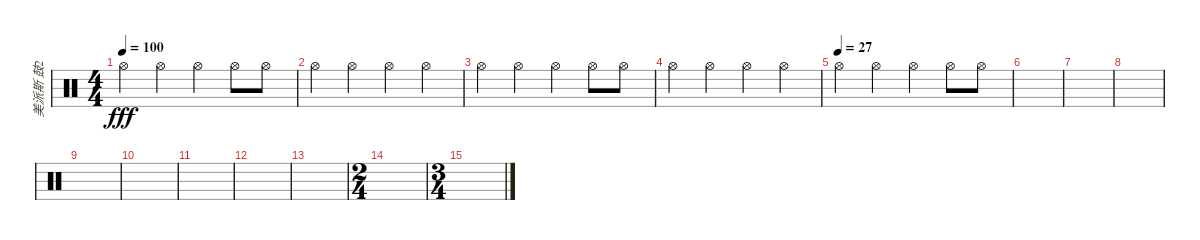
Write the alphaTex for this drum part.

\track ("美派斯 鼓2" "美派斯 鼓2") {instrument percussion}
\staff {score}
\articulation defaults
\ts (4 4)
\tempo 100
\clef neutral
\ks c "Hi-Hat (open)".4{dy fff} "Hi-Hat (open)".4 "Hi-Hat (open)".4 "Hi-Hat (open)".8 "Hi-Hat (open)".8
|
"Hi-Hat (open)".4 "Hi-Hat (open)".4 "Hi-Hat (open)".4 "Hi-Hat (open)".4 |
"Hi-Hat (open)".4 "Hi-Hat (open)".4 "Hi-Hat (open)".4 "Hi-Hat (open)".8 "Hi-Hat (open)".8 |
"Hi-Hat (open)".4 "Hi-Hat (open)".4 "Hi-Hat (open)".4 "Hi-Hat (open)".4 |
\tempo (27)
"Hi-Hat (open)".4 "Hi-Hat (open)".4 "Hi-Hat (open)".4 "Hi-Hat (open)".8 "Hi-Hat (open)".8 |
|
|
|
|
|
|
|
|
\ts (2 4)
|
\ts (3 4)
